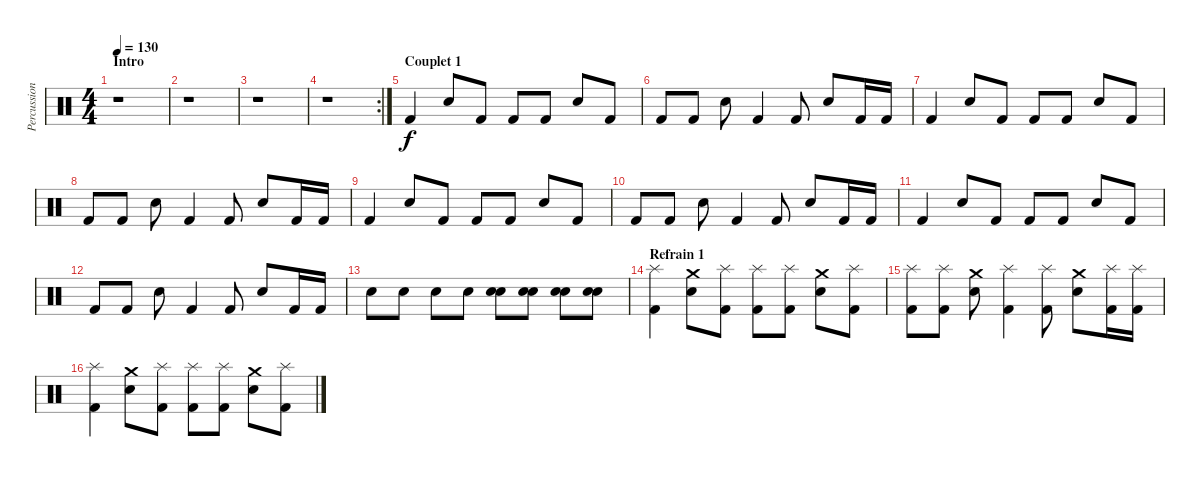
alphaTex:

\track ("Percussions" "Percussion") {instrument percussion}
\staff {score}
\articulation defaults
\ts (4 4)
\section ("" "Intro")
\tempo 130
\clef neutral
\ks c
r.1{dy f} |
r.1 |
r.1 |
\rc 2
r.1 |
\section ("" "Couplet 1")
"Kick (hit) 2".4 "Snare (hit) 2".8 "Kick (hit) 2".8 "Kick (hit) 2".8 "Kick (hit) 2".8 "Snare (hit) 2".8 "Kick (hit) 2".8 |
"Kick (hit) 2".8 "Kick (hit) 2".8 "Snare (hit) 2".8 "Kick (hit) 2".4 "Kick (hit) 2".8 "Snare (hit) 2".8 "Kick (hit) 2".16 "Kick (hit) 2".16 |
"Kick (hit) 2".4 "Snare (hit) 2".8 "Kick (hit) 2".8 "Kick (hit) 2".8 "Kick (hit) 2".8 "Snare (hit) 2".8 "Kick (hit) 2".8 |
"Kick (hit) 2".8 "Kick (hit) 2".8 "Snare (hit) 2".8 "Kick (hit) 2".4 "Kick (hit) 2".8 "Snare (hit) 2".8 "Kick (hit) 2".16 "Kick (hit) 2".16 |
"Kick (hit) 2".4 "Snare (hit) 2".8 "Kick (hit) 2".8 "Kick (hit) 2".8 "Kick (hit) 2".8 "Snare (hit) 2".8 "Kick (hit) 2".8 |
"Kick (hit) 2".8 "Kick (hit) 2".8 "Snare (hit) 2".8 "Kick (hit) 2".4 "Kick (hit) 2".8 "Snare (hit) 2".8 "Kick (hit) 2".16 "Kick (hit) 2".16 |
"Kick (hit) 2".4 "Snare (hit) 2".8 "Kick (hit) 2".8 "Kick (hit) 2".8 "Kick (hit) 2".8 "Snare (hit) 2".8 "Kick (hit) 2".8 |
"Kick (hit) 2".8 "Kick (hit) 2".8 "Snare (hit) 2".8 "Kick (hit) 2".4 "Kick (hit) 2".8 "Snare (hit) 2".8 "Kick (hit) 2".16 "Kick (hit) 2".16 |
"Snare (hit) 2".8 "Snare (hit) 2".8 "Snare (hit) 2".8 "Snare (hit) 2".8 ("Snare (hit) 2" "Snare (hit) 2").8 ("Snare (hit) 2" "Snare (hit) 2").8 ("Snare (hit) 2" "Snare (hit) 2").8 ("Snare (hit) 2" "Snare (hit) 2").8 |
\section ("" "Refrain 1")
("Splash (hit)" "Kick (hit) 2").4 ("Crash medium (hit)" "Snare (hit) 2").8 ("Splash (hit)" "Kick (hit) 2").8 ("Splash (hit)" "Kick (hit) 2").8 ("Splash (hit)" "Kick (hit) 2").8 ("Crash medium (hit)" "Snare (hit) 2").8 ("Splash (hit)" "Kick (hit) 2").8 |
("Splash (hit)" "Kick (hit) 2").8 ("Splash (hit)" "Kick (hit) 2").8 ("Crash medium (hit)" "Snare (hit) 2").8 ("Splash (hit)" "Kick (hit) 2").4 ("Splash (hit)" "Kick (hit) 2").8 ("Crash medium (hit)" "Snare (hit) 2").8 ("Splash (hit)" "Kick (hit) 2").16 ("Splash (hit)" "Kick (hit) 2").16 |
("Splash (hit)" "Kick (hit) 2").4 ("Crash medium (hit)" "Snare (hit) 2").8 ("Splash (hit)" "Kick (hit) 2").8 ("Splash (hit)" "Kick (hit) 2").8 ("Splash (hit)" "Kick (hit) 2").8 ("Crash medium (hit)" "Snare (hit) 2").8 ("Splash (hit)" "Kick (hit) 2").8
